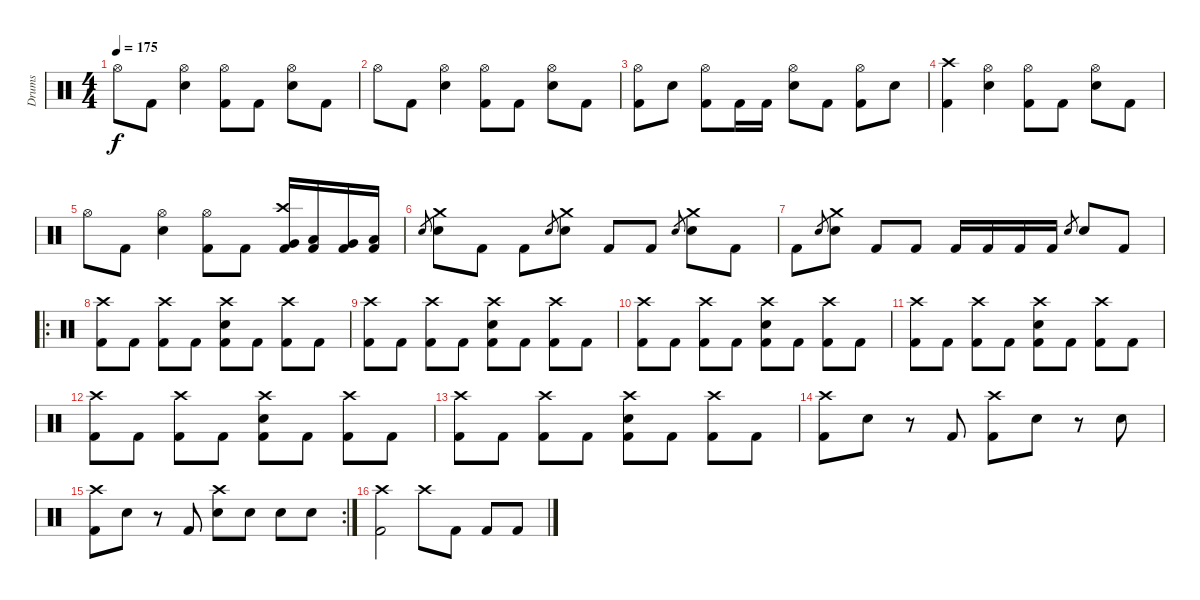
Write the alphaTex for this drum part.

\track ("Drums" "Drums") {instrument percussion}
\staff {score}
\articulation defaults
\ts (4 4)
\tempo 175
\clef neutral
\ks c "Hi-Hat (open)".8{dy f} "Kick (hit) 2".8
("Hi-Hat (open)" "Electric Snare (hit)").4 ("Hi-Hat (open)" "Kick (hit) 2").8 "Kick (hit) 2".8 ("Hi-Hat (open)" "Electric Snare (hit)").8 "Kick (hit) 2".8 |
"Hi-Hat (open)".8 "Kick (hit) 2".8 ("Hi-Hat (open)" "Electric Snare (hit)").4 ("Hi-Hat (open)" "Kick (hit) 2").8 "Kick (hit) 2".8 ("Hi-Hat (open)" "Electric Snare (hit)").8 "Kick (hit) 2".8 |
("Hi-Hat (open)" "Kick (hit) 2").8 "Electric Snare (hit)".8 ("Hi-Hat (open)" "Kick (hit) 2").8 "Kick (hit) 2".16 "Kick (hit) 2".16 ("Hi-Hat (open)" "Electric Snare (hit)").8 "Kick (hit) 2".8 ("Hi-Hat (open)" "Kick (hit) 2").8 "Electric Snare (hit)".8 |
("Crash high (hit)" "Kick (hit) 2").4 ("Hi-Hat (open)" "Electric Snare (hit)").4 ("Hi-Hat (open)" "Kick (hit) 2").8 "Kick (hit) 2".8 ("Hi-Hat (open)" "Electric Snare (hit)").8 "Kick (hit) 2".8 |
"Hi-Hat (open)".8 "Kick (hit) 2".8 ("Hi-Hat (open)" "Electric Snare (hit)").4 ("Hi-Hat (open)" "Kick (hit) 2").8 "Kick (hit) 2".8 ("Crash high (hit)" "Very Low Tom (hit)" "Kick (hit) 2").16 ("Low Tom (hit)" "Kick (hit) 2").16 ("Very Low Tom (hit)" "Kick (hit) 2").16 ("Low Floor Tom (hit)" "Kick (hit) 2").16 |
"Electric Snare (hit)".8{gr} ("Crash medium (hit)" "Electric Snare (hit)").8 "Kick (hit) 2".8 "Kick (hit) 2".8 "Electric Snare (hit)".8{gr} ("Crash medium (hit)" "Electric Snare (hit)").8 "Kick (hit) 2".8 "Kick (hit) 2".8 "Electric Snare (hit)".8{gr} ("Crash medium (hit)" "Electric Snare (hit)").8 "Kick (hit) 2".8 |
"Kick (hit) 2".8 "Electric Snare (hit)".8{gr} ("Crash medium (hit)" "Electric Snare (hit)").8 "Kick (hit) 2".8 "Kick (hit) 2".8 "Kick (hit) 2".16 "Kick (hit) 2".16 "Kick (hit) 2".16 "Kick (hit) 2".16 "Electric Snare (hit)".8{gr} "Electric Snare (hit)".8 "Kick (hit) 2".8 |
\ro
("Crash high (hit)" "Kick (hit) 2").8 "Kick (hit) 2".8 ("Crash high (hit)" "Kick (hit) 2").8 "Kick (hit) 2".8 ("Crash high (hit)" "Electric Snare (hit)" "Kick (hit) 2").8 "Kick (hit) 2".8 ("Crash high (hit)" "Kick (hit) 2").8 "Kick (hit) 2".8 |
("Crash high (hit)" "Kick (hit) 2").8 "Kick (hit) 2".8 ("Crash high (hit)" "Kick (hit) 2").8 "Kick (hit) 2".8 ("Crash high (hit)" "Electric Snare (hit)" "Kick (hit) 2").8 "Kick (hit) 2".8 ("Crash high (hit)" "Kick (hit) 2").8 "Kick (hit) 2".8 |
("Crash high (hit)" "Kick (hit) 2").8 "Kick (hit) 2".8 ("Crash high (hit)" "Kick (hit) 2").8 "Kick (hit) 2".8 ("Crash high (hit)" "Electric Snare (hit)" "Kick (hit) 2").8 "Kick (hit) 2".8 ("Crash high (hit)" "Kick (hit) 2").8 "Kick (hit) 2".8 |
("Crash high (hit)" "Kick (hit) 2").8 "Kick (hit) 2".8 ("Crash high (hit)" "Kick (hit) 2").8 "Kick (hit) 2".8 ("Crash high (hit)" "Electric Snare (hit)" "Kick (hit) 2").8 "Kick (hit) 2".8 ("Crash high (hit)" "Kick (hit) 2").8 "Kick (hit) 2".8 |
("Crash high (hit)" "Kick (hit) 2").8 "Kick (hit) 2".8 ("Crash high (hit)" "Kick (hit) 2").8 "Kick (hit) 2".8 ("Crash high (hit)" "Electric Snare (hit)" "Kick (hit) 2").8 "Kick (hit) 2".8 ("Crash high (hit)" "Kick (hit) 2").8 "Kick (hit) 2".8 |
("Crash high (hit)" "Kick (hit) 2").8 "Kick (hit) 2".8 ("Crash high (hit)" "Kick (hit) 2").8 "Kick (hit) 2".8 ("Crash high (hit)" "Electric Snare (hit)" "Kick (hit) 2").8 "Kick (hit) 2".8 ("Crash high (hit)" "Kick (hit) 2").8 "Kick (hit) 2".8 |
("Crash high (hit)" "Kick (hit) 2").8 "Electric Snare (hit)".8 r.8 "Kick (hit) 2".8 ("Crash high (hit)" "Kick (hit) 2").8 "Electric Snare (hit)".8 r.8 "Electric Snare (hit)".8 |
\rc 2
("Crash high (hit)" "Kick (hit) 2").8 "Electric Snare (hit)".8 r.8 "Kick (hit) 2".8 ("Crash high (hit)" "Electric Snare (hit)").8 "Electric Snare (hit)".8 "Electric Snare (hit)".8 "Electric Snare (hit)".8 |
("Crash high (hit)" "Kick (hit) 2").2 "Crash high (hit)".8 "Kick (hit) 2".8 "Kick (hit) 2".8 "Kick (hit) 2".8
